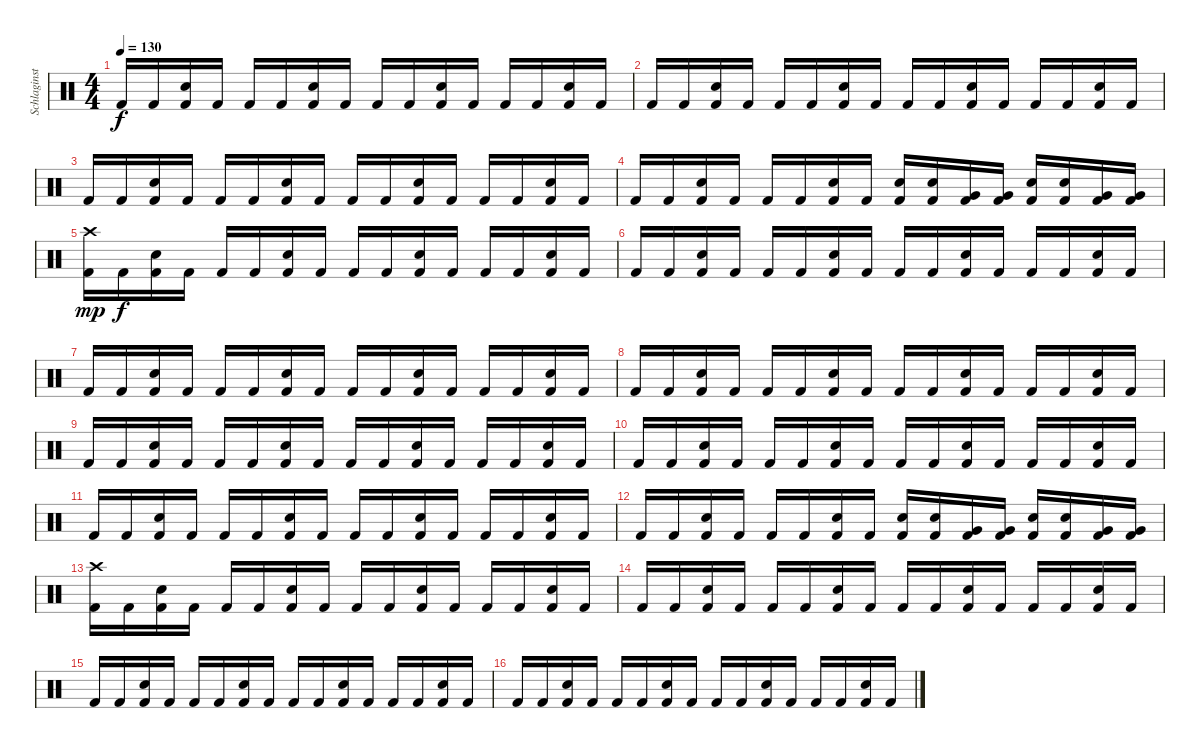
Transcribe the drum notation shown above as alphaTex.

\track ("Schlaginstrumente - Auswahl" "Schlaginst") {instrument percussion}
\staff {score}
\articulation defaults
\ts (4 4)
\tempo 130
\clef neutral
\ks c "Kick (hit) 2".16{dy f} "Kick (hit) 2".16
("Electric Snare (hit)" "Kick (hit) 2").16 "Kick (hit) 2".16 "Kick (hit) 2".16 "Kick (hit) 2".16 ("Electric Snare (hit)" "Kick (hit) 2").16 "Kick (hit) 2".16 "Kick (hit) 2".16 "Kick (hit) 2".16 ("Electric Snare (hit)" "Kick (hit) 2").16 "Kick (hit) 2".16 "Kick (hit) 2".16 "Kick (hit) 2".16 ("Electric Snare (hit)" "Kick (hit) 2").16 "Kick (hit) 2".16 |
"Kick (hit) 2".16 "Kick (hit) 2".16 ("Electric Snare (hit)" "Kick (hit) 2").16 "Kick (hit) 2".16 "Kick (hit) 2".16 "Kick (hit) 2".16 ("Electric Snare (hit)" "Kick (hit) 2").16 "Kick (hit) 2".16 "Kick (hit) 2".16 "Kick (hit) 2".16 ("Electric Snare (hit)" "Kick (hit) 2").16 "Kick (hit) 2".16 "Kick (hit) 2".16 "Kick (hit) 2".16 ("Electric Snare (hit)" "Kick (hit) 2").16 "Kick (hit) 2".16 |
"Kick (hit) 2".16 "Kick (hit) 2".16 ("Electric Snare (hit)" "Kick (hit) 2").16 "Kick (hit) 2".16 "Kick (hit) 2".16 "Kick (hit) 2".16 ("Electric Snare (hit)" "Kick (hit) 2").16 "Kick (hit) 2".16 "Kick (hit) 2".16 "Kick (hit) 2".16 ("Electric Snare (hit)" "Kick (hit) 2").16 "Kick (hit) 2".16 "Kick (hit) 2".16 "Kick (hit) 2".16 ("Electric Snare (hit)" "Kick (hit) 2").16 "Kick (hit) 2".16 |
"Kick (hit) 2".16 "Kick (hit) 2".16 ("Electric Snare (hit)" "Kick (hit) 2").16 "Kick (hit) 2".16 "Kick (hit) 2".16 "Kick (hit) 2".16 ("Electric Snare (hit)" "Kick (hit) 2").16 "Kick (hit) 2".16 ("Electric Snare (hit)" "Kick (hit) 2").16 ("Electric Snare (hit)" "Kick (hit) 2").16 ("Very Low Tom (hit)" "Kick (hit) 2").16 ("Very Low Tom (hit)" "Kick (hit) 2").16 ("Electric Snare (hit)" "Kick (hit) 2").16 ("Electric Snare (hit)" "Kick (hit) 2").16 ("Very Low Tom (hit)" "Kick (hit) 2").16 ("Very Low Tom (hit)" "Kick (hit) 2").16 |
("Crash high (hit)" "Kick (hit) 2").16{dy mp volume 10} "Kick (hit) 2".16{dy f} ("Electric Snare (hit)" "Kick (hit) 2").16 "Kick (hit) 2".16 "Kick (hit) 2".16 "Kick (hit) 2".16 ("Electric Snare (hit)" "Kick (hit) 2").16 "Kick (hit) 2".16 "Kick (hit) 2".16 "Kick (hit) 2".16 ("Electric Snare (hit)" "Kick (hit) 2").16 "Kick (hit) 2".16 "Kick (hit) 2".16 "Kick (hit) 2".16 ("Electric Snare (hit)" "Kick (hit) 2").16 "Kick (hit) 2".16 |
"Kick (hit) 2".16 "Kick (hit) 2".16 ("Electric Snare (hit)" "Kick (hit) 2").16 "Kick (hit) 2".16 "Kick (hit) 2".16 "Kick (hit) 2".16 ("Electric Snare (hit)" "Kick (hit) 2").16 "Kick (hit) 2".16 "Kick (hit) 2".16 "Kick (hit) 2".16 ("Electric Snare (hit)" "Kick (hit) 2").16 "Kick (hit) 2".16 "Kick (hit) 2".16 "Kick (hit) 2".16 ("Electric Snare (hit)" "Kick (hit) 2").16 "Kick (hit) 2".16 |
"Kick (hit) 2".16 "Kick (hit) 2".16 ("Electric Snare (hit)" "Kick (hit) 2").16 "Kick (hit) 2".16 "Kick (hit) 2".16 "Kick (hit) 2".16 ("Electric Snare (hit)" "Kick (hit) 2").16 "Kick (hit) 2".16 "Kick (hit) 2".16 "Kick (hit) 2".16 ("Electric Snare (hit)" "Kick (hit) 2").16 "Kick (hit) 2".16 "Kick (hit) 2".16 "Kick (hit) 2".16 ("Electric Snare (hit)" "Kick (hit) 2").16 "Kick (hit) 2".16 |
"Kick (hit) 2".16 "Kick (hit) 2".16 ("Electric Snare (hit)" "Kick (hit) 2").16 "Kick (hit) 2".16 "Kick (hit) 2".16 "Kick (hit) 2".16 ("Electric Snare (hit)" "Kick (hit) 2").16 "Kick (hit) 2".16 "Kick (hit) 2".16 "Kick (hit) 2".16 ("Electric Snare (hit)" "Kick (hit) 2").16 "Kick (hit) 2".16 "Kick (hit) 2".16 "Kick (hit) 2".16 ("Electric Snare (hit)" "Kick (hit) 2").16 "Kick (hit) 2".16 |
"Kick (hit) 2".16{volume 7} "Kick (hit) 2".16 ("Electric Snare (hit)" "Kick (hit) 2").16 "Kick (hit) 2".16 "Kick (hit) 2".16 "Kick (hit) 2".16 ("Electric Snare (hit)" "Kick (hit) 2").16 "Kick (hit) 2".16 "Kick (hit) 2".16 "Kick (hit) 2".16 ("Electric Snare (hit)" "Kick (hit) 2").16 "Kick (hit) 2".16 "Kick (hit) 2".16 "Kick (hit) 2".16 ("Electric Snare (hit)" "Kick (hit) 2").16 "Kick (hit) 2".16 |
"Kick (hit) 2".16 "Kick (hit) 2".16 ("Electric Snare (hit)" "Kick (hit) 2").16 "Kick (hit) 2".16 "Kick (hit) 2".16 "Kick (hit) 2".16 ("Electric Snare (hit)" "Kick (hit) 2").16 "Kick (hit) 2".16 "Kick (hit) 2".16 "Kick (hit) 2".16 ("Electric Snare (hit)" "Kick (hit) 2").16 "Kick (hit) 2".16 "Kick (hit) 2".16 "Kick (hit) 2".16 ("Electric Snare (hit)" "Kick (hit) 2").16 "Kick (hit) 2".16 |
"Kick (hit) 2".16 "Kick (hit) 2".16 ("Electric Snare (hit)" "Kick (hit) 2").16 "Kick (hit) 2".16 "Kick (hit) 2".16 "Kick (hit) 2".16 ("Electric Snare (hit)" "Kick (hit) 2").16 "Kick (hit) 2".16 "Kick (hit) 2".16 "Kick (hit) 2".16 ("Electric Snare (hit)" "Kick (hit) 2").16 "Kick (hit) 2".16 "Kick (hit) 2".16 "Kick (hit) 2".16 ("Electric Snare (hit)" "Kick (hit) 2").16 "Kick (hit) 2".16 |
"Kick (hit) 2".16 "Kick (hit) 2".16 ("Electric Snare (hit)" "Kick (hit) 2").16 "Kick (hit) 2".16 "Kick (hit) 2".16 "Kick (hit) 2".16 ("Electric Snare (hit)" "Kick (hit) 2").16 "Kick (hit) 2".16 ("Electric Snare (hit)" "Kick (hit) 2").16 ("Electric Snare (hit)" "Kick (hit) 2").16 ("Very Low Tom (hit)" "Kick (hit) 2").16 ("Very Low Tom (hit)" "Kick (hit) 2").16 ("Electric Snare (hit)" "Kick (hit) 2").16 ("Electric Snare (hit)" "Kick (hit) 2").16 ("Very Low Tom (hit)" "Kick (hit) 2").16 ("Very Low Tom (hit)" "Kick (hit) 2").16 |
("Crash high (hit)" "Kick (hit) 2").16{volume 3} "Kick (hit) 2".16 ("Electric Snare (hit)" "Kick (hit) 2").16 "Kick (hit) 2".16 "Kick (hit) 2".16 "Kick (hit) 2".16 ("Electric Snare (hit)" "Kick (hit) 2").16 "Kick (hit) 2".16 "Kick (hit) 2".16 "Kick (hit) 2".16 ("Electric Snare (hit)" "Kick (hit) 2").16 "Kick (hit) 2".16 "Kick (hit) 2".16 "Kick (hit) 2".16 ("Electric Snare (hit)" "Kick (hit) 2").16 "Kick (hit) 2".16 |
"Kick (hit) 2".16 "Kick (hit) 2".16 ("Electric Snare (hit)" "Kick (hit) 2").16 "Kick (hit) 2".16 "Kick (hit) 2".16 "Kick (hit) 2".16 ("Electric Snare (hit)" "Kick (hit) 2").16 "Kick (hit) 2".16 "Kick (hit) 2".16 "Kick (hit) 2".16 ("Electric Snare (hit)" "Kick (hit) 2").16 "Kick (hit) 2".16 "Kick (hit) 2".16 "Kick (hit) 2".16 ("Electric Snare (hit)" "Kick (hit) 2").16 "Kick (hit) 2".16 |
"Kick (hit) 2".16 "Kick (hit) 2".16 ("Electric Snare (hit)" "Kick (hit) 2").16 "Kick (hit) 2".16 "Kick (hit) 2".16 "Kick (hit) 2".16 ("Electric Snare (hit)" "Kick (hit) 2").16 "Kick (hit) 2".16 "Kick (hit) 2".16 "Kick (hit) 2".16 ("Electric Snare (hit)" "Kick (hit) 2").16 "Kick (hit) 2".16 "Kick (hit) 2".16 "Kick (hit) 2".16 ("Electric Snare (hit)" "Kick (hit) 2").16 "Kick (hit) 2".16 |
"Kick (hit) 2".16 "Kick (hit) 2".16 ("Electric Snare (hit)" "Kick (hit) 2").16 "Kick (hit) 2".16 "Kick (hit) 2".16 "Kick (hit) 2".16 ("Electric Snare (hit)" "Kick (hit) 2").16 "Kick (hit) 2".16 "Kick (hit) 2".16 "Kick (hit) 2".16 ("Electric Snare (hit)" "Kick (hit) 2").16 "Kick (hit) 2".16 "Kick (hit) 2".16 "Kick (hit) 2".16 ("Electric Snare (hit)" "Kick (hit) 2").16 "Kick (hit) 2".16
